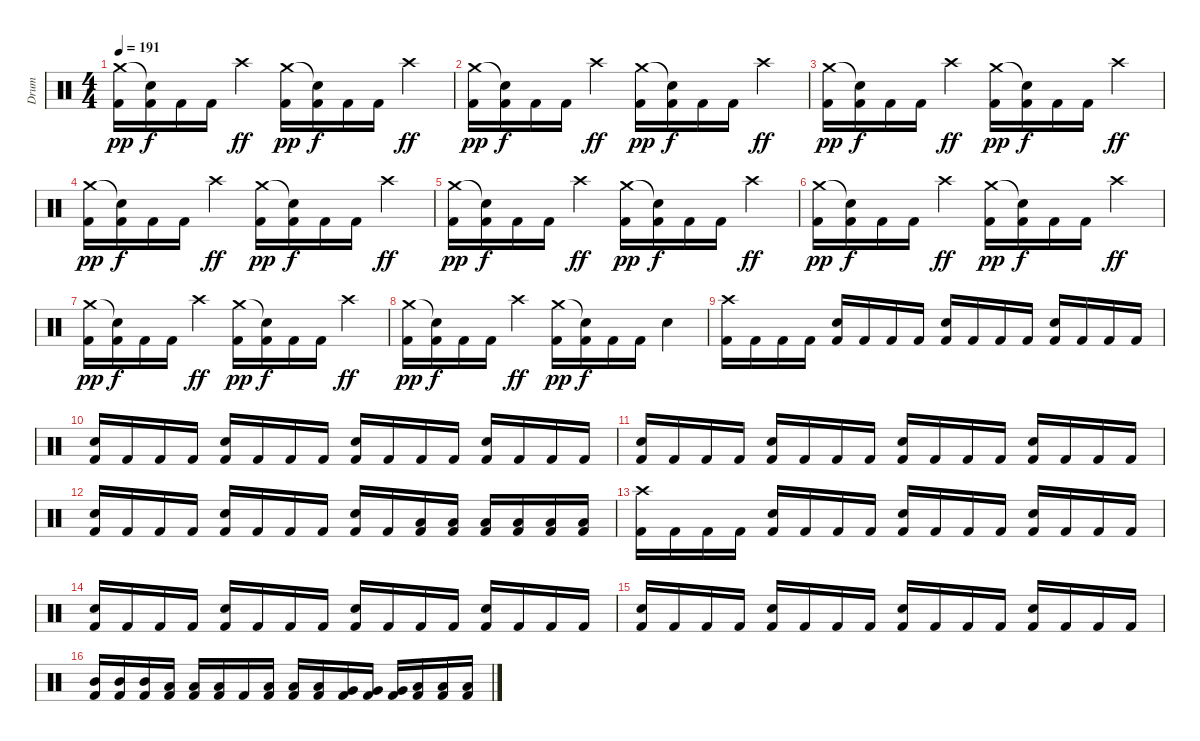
\track ("Drum" "Drum") {instrument percussion}
\staff {score}
\articulation defaults
\ts (4 4)
\tempo 191
\clef neutral
\ks c
("Kick (hit) 2" "Crash medium (hit)").16{dy pp} ("Kick (hit) 2" "Snare (hit)"{t}).16{dy f} "Kick (hit) 2".16 "Kick (hit) 2".16 "Crash high (hit)".4{dy ff} ("Kick (hit) 2" "Crash medium (hit)").16{dy pp} ("Kick (hit) 2" "Snare (hit)"{t}).16{dy f} "Kick (hit) 2".16 "Kick (hit) 2".16 "Crash high (hit)".4{dy ff} |
("Kick (hit) 2" "Crash medium (hit)").16{dy pp} ("Kick (hit) 2" "Snare (hit)"{t}).16{dy f} "Kick (hit) 2".16 "Kick (hit) 2".16 "Crash high (hit)".4{dy ff} ("Kick (hit) 2" "Crash medium (hit)").16{dy pp} ("Kick (hit) 2" "Snare (hit)"{t}).16{dy f} "Kick (hit) 2".16 "Kick (hit) 2".16 "Crash high (hit)".4{dy ff} |
("Kick (hit) 2" "Crash medium (hit)").16{dy pp} ("Kick (hit) 2" "Snare (hit)"{t}).16{dy f} "Kick (hit) 2".16 "Kick (hit) 2".16 "Crash high (hit)".4{dy ff} ("Kick (hit) 2" "Crash medium (hit)").16{dy pp} ("Kick (hit) 2" "Snare (hit)"{t}).16{dy f} "Kick (hit) 2".16 "Kick (hit) 2".16 "Crash high (hit)".4{dy ff} |
("Kick (hit) 2" "Crash medium (hit)").16{dy pp} ("Kick (hit) 2" "Snare (hit)"{t}).16{dy f} "Kick (hit) 2".16 "Kick (hit) 2".16 "Crash high (hit)".4{dy ff} ("Kick (hit) 2" "Crash medium (hit)").16{dy pp} ("Kick (hit) 2" "Snare (hit)"{t}).16{dy f} "Kick (hit) 2".16 "Kick (hit) 2".16 "Crash high (hit)".4{dy ff} |
("Kick (hit) 2" "Crash medium (hit)").16{dy pp} ("Kick (hit) 2" "Snare (hit)"{t}).16{dy f} "Kick (hit) 2".16 "Kick (hit) 2".16 "Crash high (hit)".4{dy ff} ("Kick (hit) 2" "Crash medium (hit)").16{dy pp} ("Kick (hit) 2" "Snare (hit)"{t}).16{dy f} "Kick (hit) 2".16 "Kick (hit) 2".16 "Crash high (hit)".4{dy ff} |
("Kick (hit) 2" "Crash medium (hit)").16{dy pp} ("Kick (hit) 2" "Snare (hit)"{t}).16{dy f} "Kick (hit) 2".16 "Kick (hit) 2".16 "Crash high (hit)".4{dy ff} ("Kick (hit) 2" "Crash medium (hit)").16{dy pp} ("Kick (hit) 2" "Snare (hit)"{t}).16{dy f} "Kick (hit) 2".16 "Kick (hit) 2".16 "Crash high (hit)".4{dy ff} |
("Kick (hit) 2" "Crash medium (hit)").16{dy pp} ("Kick (hit) 2" "Snare (hit)"{t}).16{dy f} "Kick (hit) 2".16 "Kick (hit) 2".16 "Crash high (hit)".4{dy ff} ("Kick (hit) 2" "Crash medium (hit)").16{dy pp} ("Kick (hit) 2" "Snare (hit)"{t}).16{dy f} "Kick (hit) 2".16 "Kick (hit) 2".16 "Crash high (hit)".4{dy ff} |
("Kick (hit) 2" "Crash medium (hit)").16{dy pp} ("Kick (hit) 2" "Snare (hit)"{t}).16{dy f} "Kick (hit) 2".16 "Kick (hit) 2".16 "Crash high (hit)".4{dy ff} ("Kick (hit) 2" "Crash medium (hit)").16{dy pp} ("Kick (hit) 2" "Snare (hit)"{t}).16{dy f} "Kick (hit) 2".16 "Kick (hit) 2".16 "Snare (hit) 2".4 |
("Kick (hit) 2" "Crash high (hit)").16 "Kick (hit) 2".16 "Kick (hit) 2".16 "Kick (hit) 2".16 ("Kick (hit) 2" "Snare (hit) 2").16 "Kick (hit) 2".16 "Kick (hit) 2".16 "Kick (hit) 2".16 ("Kick (hit) 2" "Snare (hit) 2").16 "Kick (hit) 2".16 "Kick (hit) 2".16 "Kick (hit) 2".16 ("Kick (hit) 2" "Snare (hit) 2").16 "Kick (hit) 2".16 "Kick (hit) 2".16 "Kick (hit) 2".16 |
("Kick (hit) 2" "Snare (hit) 2").16 "Kick (hit) 2".16 "Kick (hit) 2".16 "Kick (hit) 2".16 ("Kick (hit) 2" "Snare (hit) 2").16 "Kick (hit) 2".16 "Kick (hit) 2".16 "Kick (hit) 2".16 ("Kick (hit) 2" "Snare (hit) 2").16 "Kick (hit) 2".16 "Kick (hit) 2".16 "Kick (hit) 2".16 ("Kick (hit) 2" "Snare (hit) 2").16 "Kick (hit) 2".16 "Kick (hit) 2".16 "Kick (hit) 2".16 |
("Kick (hit) 2" "Snare (hit) 2").16 "Kick (hit) 2".16 "Kick (hit) 2".16 "Kick (hit) 2".16 ("Kick (hit) 2" "Snare (hit) 2").16 "Kick (hit) 2".16 "Kick (hit) 2".16 "Kick (hit) 2".16 ("Kick (hit) 2" "Snare (hit) 2").16 "Kick (hit) 2".16 "Kick (hit) 2".16 "Kick (hit) 2".16 ("Kick (hit) 2" "Snare (hit) 2").16 "Kick (hit) 2".16 "Kick (hit) 2".16 "Kick (hit) 2".16 |
("Kick (hit) 2" "Snare (hit) 2").16 "Kick (hit) 2".16 "Kick (hit) 2".16 "Kick (hit) 2".16 ("Kick (hit) 2" "Snare (hit) 2").16 "Kick (hit) 2".16 "Kick (hit) 2".16 "Kick (hit) 2".16 ("Kick (hit) 2" "Snare (hit) 2").16 "Kick (hit) 2".16 ("Kick (hit) 2" "Low Floor Tom (hit)").16 ("Kick (hit) 2" "Low Floor Tom (hit)").16 ("Kick (hit) 2" "Low Floor Tom (hit)").16 ("Kick (hit) 2" "Low Floor Tom (hit)").16 ("Kick (hit) 2" "Low Floor Tom (hit)").16 ("Kick (hit) 2" "Low Floor Tom (hit)").16 |
("Kick (hit) 2" "Crash high (hit)").16 "Kick (hit) 2".16 "Kick (hit) 2".16 "Kick (hit) 2".16 ("Kick (hit) 2" "Snare (hit) 2").16 "Kick (hit) 2".16 "Kick (hit) 2".16 "Kick (hit) 2".16 ("Kick (hit) 2" "Snare (hit) 2").16 "Kick (hit) 2".16 "Kick (hit) 2".16 "Kick (hit) 2".16 ("Kick (hit) 2" "Snare (hit) 2").16 "Kick (hit) 2".16 "Kick (hit) 2".16 "Kick (hit) 2".16 |
("Kick (hit) 2" "Snare (hit) 2").16 "Kick (hit) 2".16 "Kick (hit) 2".16 "Kick (hit) 2".16 ("Kick (hit) 2" "Snare (hit) 2").16 "Kick (hit) 2".16 "Kick (hit) 2".16 "Kick (hit) 2".16 ("Kick (hit) 2" "Snare (hit) 2").16 "Kick (hit) 2".16 "Kick (hit) 2".16 "Kick (hit) 2".16 ("Kick (hit) 2" "Snare (hit) 2").16 "Kick (hit) 2".16 "Kick (hit) 2".16 "Kick (hit) 2".16 |
("Kick (hit) 2" "Snare (hit) 2").16 "Kick (hit) 2".16 "Kick (hit) 2".16 "Kick (hit) 2".16 ("Kick (hit) 2" "Snare (hit) 2").16 "Kick (hit) 2".16 "Kick (hit) 2".16 "Kick (hit) 2".16 ("Kick (hit) 2" "Snare (hit) 2").16 "Kick (hit) 2".16 "Kick (hit) 2".16 "Kick (hit) 2".16 ("Kick (hit) 2" "Snare (hit) 2").16 "Kick (hit) 2".16 "Kick (hit) 2".16 "Kick (hit) 2".16 |
("Kick (hit) 2" "Mid Tom (hit)").16 ("Kick (hit) 2" "Mid Tom (hit)").16 ("Kick (hit) 2" "Mid Tom (hit)").16 ("Kick (hit) 2" "Low Tom (hit)").16 ("Kick (hit) 2" "Low Tom (hit)").16 ("Kick (hit) 2" "Low Tom (hit)").16 "Kick (hit) 2".16 ("Kick (hit) 2" "Low Tom (hit)").16 ("Kick (hit) 2" "Low Tom (hit)").16 ("Kick (hit) 2" "Low Tom (hit)").16 ("Kick (hit) 2" "Very Low Tom (hit)").16 ("Kick (hit) 2" "Very Low Tom (hit)").16 ("Kick (hit) 2" "Very Low Tom (hit)").16 ("Kick (hit) 2" "Low Floor Tom (hit)").16 ("Kick (hit) 2" "Low Floor Tom (hit)").16 ("Kick (hit) 2" "Low Floor Tom (hit)").16
